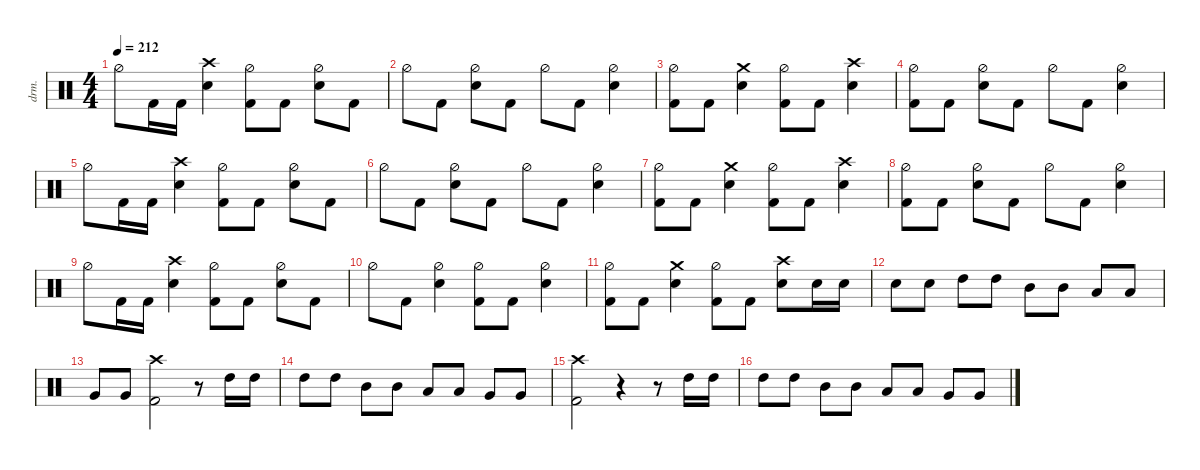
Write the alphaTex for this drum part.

\defaultSystemsLayout 4
\hideDynamics
\bracketExtendMode nobrackets
\track ("Drums" "drm.") {defaultSystemsLayout 4 multiBarRest instrument percussion}
\staff
\articulation defaults
\ts (4 4)
\tempo 212
\clef neutral
\ks c "Hi-Hat (half)".8{dy f} "Kick (hit) 2".16 "Kick (hit) 2".16
("Snare (hit) 2" "Crash high (hit)").4 ("Hi-Hat (half)" "Kick (hit) 2").8 "Kick (hit) 2".8 ("Hi-Hat (half)" "Snare (hit) 2").8 "Kick (hit) 2".8 |
"Hi-Hat (half)".8 "Kick (hit) 2".8 ("Hi-Hat (half)" "Snare (hit) 2").8 "Kick (hit) 2".8 "Hi-Hat (half)".8 "Kick (hit) 2".8 ("Hi-Hat (half)" "Snare (hit) 2").4 |
("Hi-Hat (half)" "Kick (hit) 2").8 "Kick (hit) 2".8 ("Snare (hit) 2" "Crash medium (hit)").4 ("Hi-Hat (half)" "Kick (hit) 2").8 "Kick (hit) 2".8 ("Snare (hit) 2" "Crash high (hit)").4 |
("Hi-Hat (half)" "Kick (hit) 2").8 "Kick (hit) 2".8 ("Hi-Hat (half)" "Snare (hit) 2").8 "Kick (hit) 2".8 "Hi-Hat (half)".8 "Kick (hit) 2".8 ("Hi-Hat (half)" "Snare (hit) 2").4 |
"Hi-Hat (half)".8 "Kick (hit) 2".16 "Kick (hit) 2".16 ("Snare (hit) 2" "Crash high (hit)").4 ("Hi-Hat (half)" "Kick (hit) 2").8 "Kick (hit) 2".8 ("Hi-Hat (half)" "Snare (hit) 2").8 "Kick (hit) 2".8 |
"Hi-Hat (half)".8 "Kick (hit) 2".8 ("Hi-Hat (half)" "Snare (hit) 2").8 "Kick (hit) 2".8 "Hi-Hat (half)".8 "Kick (hit) 2".8 ("Hi-Hat (half)" "Snare (hit) 2").4 |
("Hi-Hat (half)" "Kick (hit) 2").8 "Kick (hit) 2".8 ("Snare (hit) 2" "Crash medium (hit)").4 ("Hi-Hat (half)" "Kick (hit) 2").8 "Kick (hit) 2".8 ("Snare (hit) 2" "Crash high (hit)").4 |
("Hi-Hat (half)" "Kick (hit) 2").8 "Kick (hit) 2".8 ("Hi-Hat (half)" "Snare (hit) 2").8 "Kick (hit) 2".8 "Hi-Hat (half)".8 "Kick (hit) 2".8 ("Hi-Hat (half)" "Snare (hit) 2").4 |
"Hi-Hat (half)".8 "Kick (hit) 2".16 "Kick (hit) 2".16 ("Snare (hit) 2" "Crash high (hit)").4 ("Hi-Hat (half)" "Kick (hit) 2").8 "Kick (hit) 2".8 ("Hi-Hat (half)" "Snare (hit) 2").8 "Kick (hit) 2".8 |
"Hi-Hat (half)".8 "Kick (hit) 2".8 ("Hi-Hat (half)" "Snare (hit) 2").4 ("Hi-Hat (half)" "Kick (hit) 2").8 "Kick (hit) 2".8 ("Hi-Hat (half)" "Snare (hit) 2").4 |
("Hi-Hat (half)" "Kick (hit) 2").8 "Kick (hit) 2".8 ("Snare (hit) 2" "Crash medium (hit)").4 ("Hi-Hat (half)" "Kick (hit) 2").8 "Kick (hit) 2".8 ("Snare (hit) 2" "Crash high (hit)").8 "Snare (hit) 2".16{dy mp} "Snare (hit) 2".16{dy mf} |
"Snare (hit) 2".8{dy f} "Snare (hit) 2".8 "High Tom (hit)".8{dy ff} "High Tom (hit)".8 "Mid Tom (hit)".8 "Mid Tom (hit)".8 "Low Tom (hit)".8 "Low Tom (hit)".8 |
"Very Low Tom (hit)".8 "Very Low Tom (hit)".8 ("Kick (hit) 2" "Crash high (hit)").2{dy f} r.8 "High Tom (hit)".16{dy ff} "High Tom (hit)".16 |
"High Tom (hit)".8 "High Tom (hit)".8 "Mid Tom (hit)".8 "Mid Tom (hit)".8 "Low Tom (hit)".8 "Low Tom (hit)".8 "Very Low Tom (hit)".8 "Very Low Tom (hit)".8 |
("Kick (hit) 2" "Crash high (hit)").2{dy f} r.4 r.8 "High Tom (hit)".16{dy ff} "High Tom (hit)".16 |
"High Tom (hit)".8 "High Tom (hit)".8 "Mid Tom (hit)".8 "Mid Tom (hit)".8 "Low Tom (hit)".8 "Low Tom (hit)".8 "Very Low Tom (hit)".8 "Very Low Tom (hit)".8
